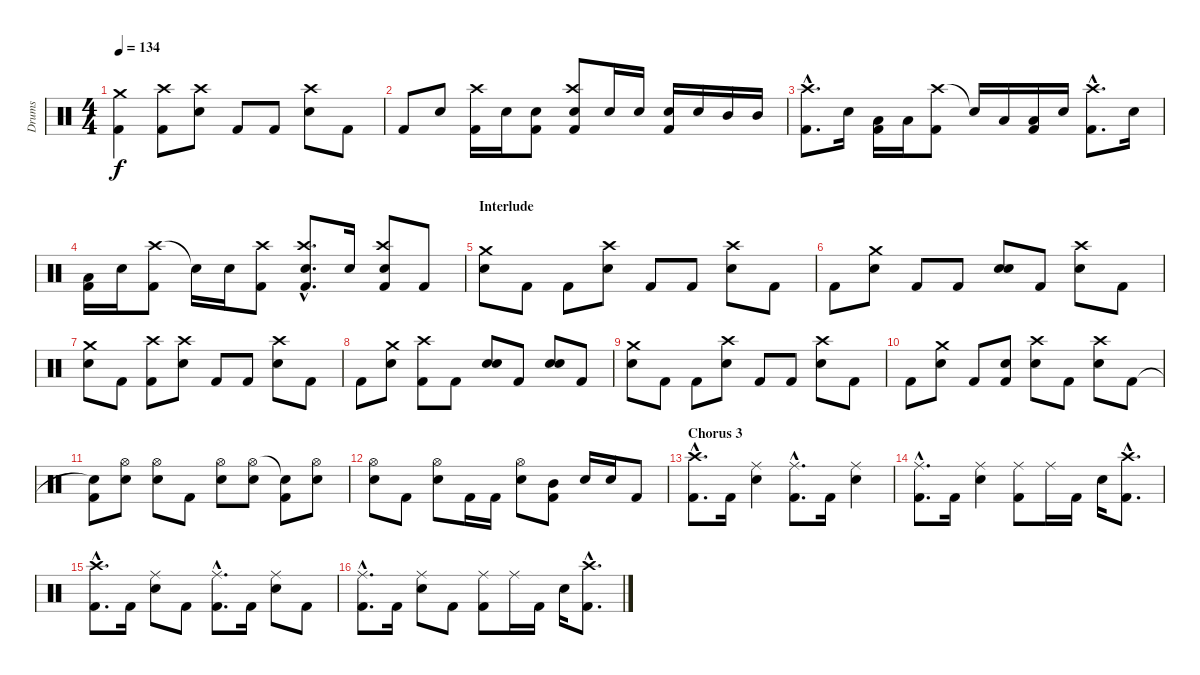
\track ("Drums" "Drums") {instrument percussion}
\staff {score}
\articulation defaults
\ts (4 4)
\tempo 134
\clef neutral
\ks c
("Crash medium (hit)" "Kick (hit) 2").4{dy f} ("Crash high (hit)" "Kick (hit) 2").8 ("Crash high (hit)" "Electric Snare (hit)").8 "Kick (hit) 2".8 "Kick (hit) 2".8 ("Crash high (hit)" "Electric Snare (hit)").8 "Kick (hit) 2".8 |
"Kick (hit) 2".8 "Electric Snare (hit)".8 ("Crash high (hit)" "Kick (hit) 2").16 "Electric Snare (hit)".16 ("Electric Snare (hit)" "Kick (hit) 2").8 ("Crash high (hit)" "Electric Snare (hit)" "Kick (hit) 2").8 "Electric Snare (hit)".16 "Electric Snare (hit)".16 ("Electric Snare (hit)" "Kick (hit) 2").16 "Electric Snare (hit)".16 "Mid Tom (hit)".16 "Mid Tom (hit)".16 |
("Crash high (hit)"{hac} "Kick (hit) 2"{hac}).8{d} "Electric Snare (hit)".16 ("Low Tom (hit)" "Kick (hit) 2").16 "Low Tom (hit)".16 ("Crash high (hit)" "Kick (hit) 2").8 "Snare (hit)"{t}.16 "Low Tom (hit)".16 ("Low Tom (hit)" "Kick (hit) 2").16 "Electric Snare (hit)".16 ("Crash high (hit)"{hac} "Kick (hit) 2"{hac}).8{d} "Electric Snare (hit)".16 |
("Low Tom (hit)" "Kick (hit) 2").16 "Electric Snare (hit)".16 ("Crash high (hit)" "Kick (hit) 2").8 "Snare (hit)"{t}.16 "Electric Snare (hit)".16 ("Crash high (hit)" "Kick (hit) 2").8 ("Crash high (hit)"{hac} "Electric Snare (hit)"{hac} "Kick (hit) 2"{hac}).8{d} "Electric Snare (hit)".16 ("Crash high (hit)" "Electric Snare (hit)" "Kick (hit) 2").8 "Kick (hit) 2".8 |
\section ("" "Interlude")
("Crash medium (hit)" "Electric Snare (hit)").8 "Kick (hit) 2".8 "Kick (hit) 2".8 ("Crash high (hit)" "Electric Snare (hit)").8 "Kick (hit) 2".8 "Kick (hit) 2".8 ("Crash high (hit)" "Electric Snare (hit)").8 "Kick (hit) 2".8 |
"Kick (hit) 2".8 ("Crash medium (hit)" "Electric Snare (hit)").8 "Kick (hit) 2".8 "Kick (hit) 2".8 ("Electric Snare (hit)" "Electric Snare (hit)").8 "Kick (hit) 2".8 ("Crash high (hit)" "Electric Snare (hit)").8 "Kick (hit) 2".8 |
("Crash medium (hit)" "Electric Snare (hit)").8 "Kick (hit) 2".8 ("Crash high (hit)" "Kick (hit) 2").8 ("Crash high (hit)" "Electric Snare (hit)").8 "Kick (hit) 2".8 "Kick (hit) 2".8 ("Crash high (hit)" "Electric Snare (hit)").8 "Kick (hit) 2".8 |
"Kick (hit) 2".8 ("Crash medium (hit)" "Electric Snare (hit)").8 ("Crash high (hit)" "Kick (hit) 2").8 "Kick (hit) 2".8 ("Electric Snare (hit)" "Electric Snare (hit)").8 "Kick (hit) 2".8 ("Electric Snare (hit)" "Electric Snare (hit)").8 "Kick (hit) 2".8 |
("Crash medium (hit)" "Electric Snare (hit)").8 "Kick (hit) 2".8 "Kick (hit) 2".8 ("Crash high (hit)" "Electric Snare (hit)").8 "Kick (hit) 2".8 "Kick (hit) 2".8 ("Crash high (hit)" "Electric Snare (hit)").8 "Kick (hit) 2".8 |
"Kick (hit) 2".8 ("Crash medium (hit)" "Electric Snare (hit)").8 "Kick (hit) 2".8 ("Electric Snare (hit)" "Kick (hit) 2").8 ("Crash high (hit)" "Electric Snare (hit)").8 "Kick (hit) 2".8 ("Crash high (hit)" "Electric Snare (hit)").8 "Kick (hit) 2".8 |
("Snare (hit)"{t} "Kick (hit) 2").8 ("Hi-Hat (open)" "Electric Snare (hit)").8 ("Hi-Hat (open)" "Electric Snare (hit)").8 "Kick (hit) 2".8 ("Hi-Hat (open)" "Electric Snare (hit)").8 ("Hi-Hat (open)" "Electric Snare (hit)").8 ("Snare (hit)"{t} "Kick (hit) 2").8 ("Hi-Hat (open)" "Electric Snare (hit)").8 |
("Hi-Hat (open)" "Electric Snare (hit)").8 "Kick (hit) 2".8 ("Hi-Hat (open)" "Electric Snare (hit)").8 "Kick (hit) 2".16 "Kick (hit) 2".16 ("Hi-Hat (open)" "Electric Snare (hit)").8 ("Mid Tom (hit)" "Kick (hit) 2").8 "Electric Snare (hit)".16 "Electric Snare (hit)".16 "Kick (hit) 2".8 |
\section ("" "Chorus 3")
("Crash high (hit)"{hac} "Kick (hit) 2"{hac}).8{d} "Kick (hit) 2".16 ("Ride (middle)" "Electric Snare (hit)").4 ("Ride (middle)"{hac} "Kick (hit) 2"{hac}).8{d} "Kick (hit) 2".16 ("Ride (middle)" "Electric Snare (hit)").4 |
("Ride (middle)"{hac} "Kick (hit) 2"{hac}).8{d} "Kick (hit) 2".16 ("Ride (middle)" "Electric Snare (hit)").4 ("Ride (middle)" "Kick (hit) 2").8 "Ride (middle)".16 "Kick (hit) 2".16 "Electric Snare (hit)".16 ("Crash high (hit)"{hac} "Kick (hit) 2"{hac}).8{d} |
("Crash high (hit)"{hac} "Kick (hit) 2"{hac}).8{d} "Kick (hit) 2".16 ("Ride (middle)" "Electric Snare (hit)").8 "Kick (hit) 2".8 ("Ride (middle)"{hac} "Kick (hit) 2"{hac}).8{d} "Kick (hit) 2".16 ("Ride (middle)" "Electric Snare (hit)").8 "Kick (hit) 2".8 |
("Ride (middle)"{hac} "Kick (hit) 2"{hac}).8{d} "Kick (hit) 2".16 ("Ride (middle)" "Electric Snare (hit)").8 "Kick (hit) 2".8 ("Ride (middle)" "Kick (hit) 2").8 "Ride (middle)".16 "Kick (hit) 2".16 "Electric Snare (hit)".16 ("Crash high (hit)"{hac} "Kick (hit) 2"{hac}).8{d}
